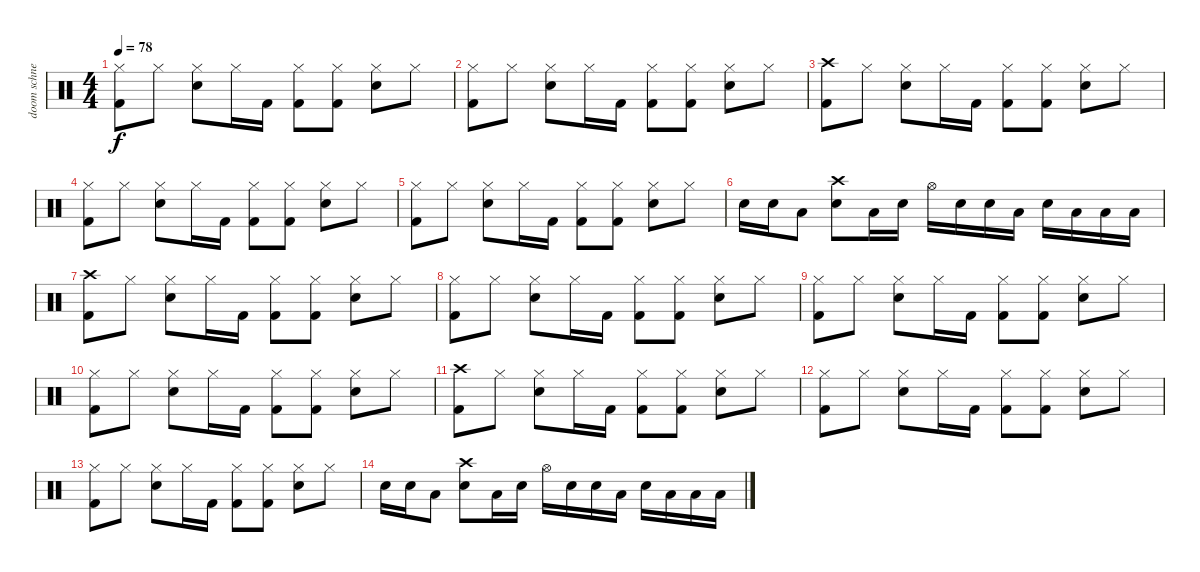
\track ("doom schneider" "doom schne") {instrument percussion}
\staff {score}
\articulation defaults
\ts (4 4)
\tempo 78
\clef neutral
\ks c
("Hi-Hat (closed)" "Kick (hit) 2").8{dy f} "Hi-Hat (closed)".8 ("Hi-Hat (closed)" "Snare (hit) 2").8 "Hi-Hat (closed)".16 "Kick (hit) 2".16 ("Hi-Hat (closed)" "Kick (hit) 2").8 ("Hi-Hat (closed)" "Kick (hit) 2").8 ("Hi-Hat (closed)" "Snare (hit) 2").8 "Hi-Hat (closed)".8 |
("Hi-Hat (closed)" "Kick (hit) 2").8 "Hi-Hat (closed)".8 ("Hi-Hat (closed)" "Snare (hit) 2").8 "Hi-Hat (closed)".16 "Kick (hit) 2".16 ("Hi-Hat (closed)" "Kick (hit) 2").8 ("Hi-Hat (closed)" "Kick (hit) 2").8 ("Hi-Hat (closed)" "Snare (hit) 2").8 "Hi-Hat (closed)".8 |
("Crash high (hit)" "Kick (hit) 2").8 "Hi-Hat (closed)".8 ("Hi-Hat (closed)" "Snare (hit) 2").8 "Hi-Hat (closed)".16 "Kick (hit) 2".16 ("Hi-Hat (closed)" "Kick (hit) 2").8 ("Hi-Hat (closed)" "Kick (hit) 2").8 ("Hi-Hat (closed)" "Snare (hit) 2").8 "Hi-Hat (closed)".8 |
("Hi-Hat (closed)" "Kick (hit) 2").8 "Hi-Hat (closed)".8 ("Hi-Hat (closed)" "Snare (hit) 2").8 "Hi-Hat (closed)".16 "Kick (hit) 2".16 ("Hi-Hat (closed)" "Kick (hit) 2").8 ("Hi-Hat (closed)" "Kick (hit) 2").8 ("Hi-Hat (closed)" "Snare (hit) 2").8 "Hi-Hat (closed)".8 |
("Hi-Hat (closed)" "Kick (hit) 2").8 "Hi-Hat (closed)".8 ("Hi-Hat (closed)" "Snare (hit) 2").8 "Hi-Hat (closed)".16 "Kick (hit) 2".16 ("Hi-Hat (closed)" "Kick (hit) 2").8 ("Hi-Hat (closed)" "Kick (hit) 2").8 ("Hi-Hat (closed)" "Snare (hit) 2").8 "Hi-Hat (closed)".8 |
"Snare (hit) 2".16 "Snare (hit) 2".16 "Low Tom (hit)".8 ("Crash high (hit)" "Snare (hit) 2").8 "Low Tom (hit)".16 "Snare (hit) 2".16 "Hi-Hat (open)".16 "Snare (hit) 2".16 "Snare (hit) 2".16 "Low Tom (hit)".16 "Snare (hit) 2".16 "Low Tom (hit)".16 "Low Floor Tom (hit)".16 "Low Floor Tom (hit)".16 |
("Crash high (hit)" "Kick (hit) 2").8 "Hi-Hat (closed)".8 ("Hi-Hat (closed)" "Snare (hit) 2").8 "Hi-Hat (closed)".16 "Kick (hit) 2".16 ("Hi-Hat (closed)" "Kick (hit) 2").8 ("Hi-Hat (closed)" "Kick (hit) 2").8 ("Hi-Hat (closed)" "Snare (hit) 2").8 "Hi-Hat (closed)".8 |
("Hi-Hat (closed)" "Kick (hit) 2").8 "Hi-Hat (closed)".8 ("Hi-Hat (closed)" "Snare (hit) 2").8 "Hi-Hat (closed)".16 "Kick (hit) 2".16 ("Hi-Hat (closed)" "Kick (hit) 2").8 ("Hi-Hat (closed)" "Kick (hit) 2").8 ("Hi-Hat (closed)" "Snare (hit) 2").8 "Hi-Hat (closed)".8 |
("Hi-Hat (closed)" "Kick (hit) 2").8 "Hi-Hat (closed)".8 ("Hi-Hat (closed)" "Snare (hit) 2").8 "Hi-Hat (closed)".16 "Kick (hit) 2".16 ("Hi-Hat (closed)" "Kick (hit) 2").8 ("Hi-Hat (closed)" "Kick (hit) 2").8 ("Hi-Hat (closed)" "Snare (hit) 2").8 "Hi-Hat (closed)".8 |
("Hi-Hat (closed)" "Kick (hit) 2").8 "Hi-Hat (closed)".8 ("Hi-Hat (closed)" "Snare (hit) 2").8 "Hi-Hat (closed)".16 "Kick (hit) 2".16 ("Hi-Hat (closed)" "Kick (hit) 2").8 ("Hi-Hat (closed)" "Kick (hit) 2").8 ("Hi-Hat (closed)" "Snare (hit) 2").8 "Hi-Hat (closed)".8 |
("Crash high (hit)" "Kick (hit) 2").8 "Hi-Hat (closed)".8 ("Hi-Hat (closed)" "Snare (hit) 2").8 "Hi-Hat (closed)".16 "Kick (hit) 2".16 ("Hi-Hat (closed)" "Kick (hit) 2").8 ("Hi-Hat (closed)" "Kick (hit) 2").8 ("Hi-Hat (closed)" "Snare (hit) 2").8 "Hi-Hat (closed)".8 |
("Hi-Hat (closed)" "Kick (hit) 2").8 "Hi-Hat (closed)".8 ("Hi-Hat (closed)" "Snare (hit) 2").8 "Hi-Hat (closed)".16 "Kick (hit) 2".16 ("Hi-Hat (closed)" "Kick (hit) 2").8 ("Hi-Hat (closed)" "Kick (hit) 2").8 ("Hi-Hat (closed)" "Snare (hit) 2").8 "Hi-Hat (closed)".8 |
("Hi-Hat (closed)" "Kick (hit) 2").8 "Hi-Hat (closed)".8 ("Hi-Hat (closed)" "Snare (hit) 2").8 "Hi-Hat (closed)".16 "Kick (hit) 2".16 ("Hi-Hat (closed)" "Kick (hit) 2").8 ("Hi-Hat (closed)" "Kick (hit) 2").8 ("Hi-Hat (closed)" "Snare (hit) 2").8 "Hi-Hat (closed)".8 |
"Snare (hit) 2".16 "Snare (hit) 2".16 "Low Tom (hit)".8 ("Crash high (hit)" "Snare (hit) 2").8 "Low Tom (hit)".16 "Snare (hit) 2".16 "Hi-Hat (open)".16 "Snare (hit) 2".16 "Snare (hit) 2".16 "Low Tom (hit)".16 "Snare (hit) 2".16 "Low Tom (hit)".16 "Low Floor Tom (hit)".16 "Low Floor Tom (hit)".16
